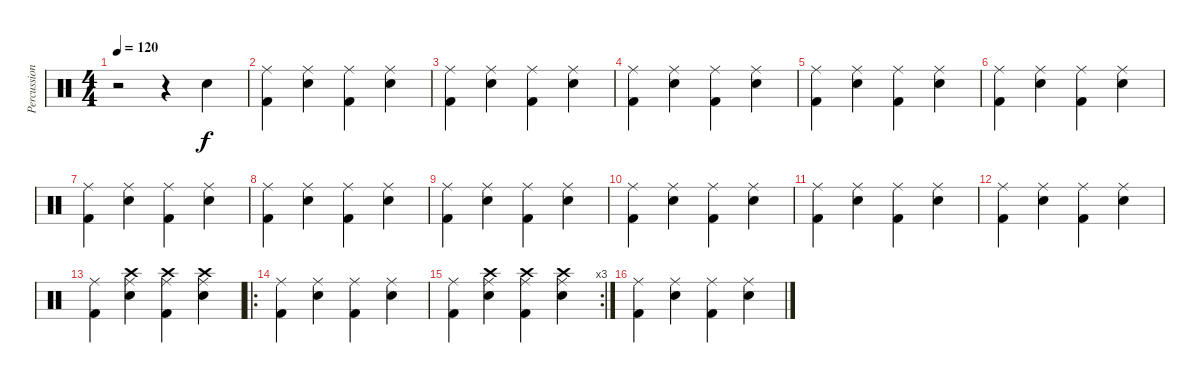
\track ("Percussions" "Percussion") {instrument percussion}
\staff {score}
\articulation defaults
\ts (4 4)
\tempo 120
\clef neutral
\ks c
r.2{dy f} r.4 "Electric Snare (hit)".4 |
("Ride (middle)" "Kick (hit) 2").4 ("Ride (middle)" "Electric Snare (hit)").4 ("Ride (middle)" "Kick (hit) 2").4 ("Ride (middle)" "Electric Snare (hit)").4 |
("Ride (middle)" "Kick (hit) 2").4 ("Ride (middle)" "Electric Snare (hit)").4 ("Ride (middle)" "Kick (hit) 2").4 ("Ride (middle)" "Electric Snare (hit)").4 |
("Ride (middle)" "Kick (hit) 2").4 ("Ride (middle)" "Electric Snare (hit)").4 ("Ride (middle)" "Kick (hit) 2").4 ("Ride (middle)" "Electric Snare (hit)").4 |
("Ride (middle)" "Kick (hit) 2").4 ("Ride (middle)" "Electric Snare (hit)").4 ("Ride (middle)" "Kick (hit) 2").4 ("Ride (middle)" "Electric Snare (hit)").4 |
("Ride (middle)" "Kick (hit) 2").4 ("Ride (middle)" "Electric Snare (hit)").4 ("Ride (middle)" "Kick (hit) 2").4 ("Ride (middle)" "Electric Snare (hit)").4 |
("Ride (middle)" "Kick (hit) 2").4 ("Ride (middle)" "Electric Snare (hit)").4 ("Ride (middle)" "Kick (hit) 2").4 ("Ride (middle)" "Electric Snare (hit)").4 |
("Ride (middle)" "Kick (hit) 2").4 ("Ride (middle)" "Electric Snare (hit)").4 ("Ride (middle)" "Kick (hit) 2").4 ("Ride (middle)" "Electric Snare (hit)").4 |
("Ride (middle)" "Kick (hit) 2").4 ("Ride (middle)" "Electric Snare (hit)").4 ("Ride (middle)" "Kick (hit) 2").4 ("Ride (middle)" "Electric Snare (hit)").4 |
("Ride (middle)" "Kick (hit) 2").4 ("Ride (middle)" "Electric Snare (hit)").4 ("Ride (middle)" "Kick (hit) 2").4 ("Ride (middle)" "Electric Snare (hit)").4 |
("Ride (middle)" "Kick (hit) 2").4 ("Ride (middle)" "Electric Snare (hit)").4 ("Ride (middle)" "Kick (hit) 2").4 ("Ride (middle)" "Electric Snare (hit)").4 |
("Ride (middle)" "Kick (hit) 2").4 ("Ride (middle)" "Electric Snare (hit)").4 ("Ride (middle)" "Kick (hit) 2").4 ("Ride (middle)" "Electric Snare (hit)").4 |
("Ride (middle)" "Kick (hit) 2").4 ("Ride (middle)" "Electric Snare (hit)" "Crash high (hit)").4 ("Ride (middle)" "Kick (hit) 2" "Crash high (hit)").4 ("Ride (middle)" "Electric Snare (hit)" "Crash high (hit)").4 |
\ro
("Ride (middle)" "Kick (hit) 2").4 ("Ride (middle)" "Electric Snare (hit)").4 ("Ride (middle)" "Kick (hit) 2").4 ("Ride (middle)" "Electric Snare (hit)").4 |
\rc 3
("Ride (middle)" "Kick (hit) 2").4 ("Ride (middle)" "Electric Snare (hit)" "Crash high (hit)").4 ("Ride (middle)" "Kick (hit) 2" "Crash high (hit)").4 ("Ride (middle)" "Electric Snare (hit)" "Crash high (hit)").4 |
("Ride (middle)" "Kick (hit) 2").4 ("Ride (middle)" "Electric Snare (hit)").4 ("Ride (middle)" "Kick (hit) 2").4 ("Ride (middle)" "Electric Snare (hit)").4
